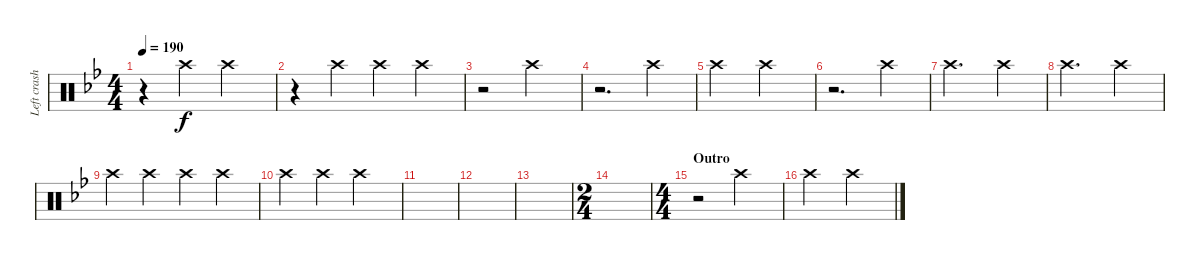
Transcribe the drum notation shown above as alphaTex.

\track ("Left crash" "Left crash") {instrument percussion}
\staff {score}
\articulation defaults
\ts (4 4)
\tempo 190
\clef neutral
\ks bb
r.4{dy f} "Crash high (hit)".4 "Crash high (hit)".2 |
r.4 "Crash high (hit)".4 "Crash high (hit)".4 "Crash high (hit)".4 |
r.2 "Crash high (hit)".2 |
r.2{d} "Crash high (hit)".4 |
"Crash high (hit)".2 "Crash high (hit)".2 |
r.2{d} "Crash high (hit)".4 |
"Crash high (hit)".2{d} "Crash high (hit)".4 |
"Crash high (hit)".2{d} "Crash high (hit)".4 |
"Crash high (hit)".4 "Crash high (hit)".4 "Crash high (hit)".4 "Crash high (hit)".4 |
"Crash high (hit)".4 "Crash high (hit)".4 "Crash high (hit)".2 |
|
|
|
\ts (2 4)
|
\ts (4 4)
\section ("" "Outro")
r.2 "Crash high (hit)".2 |
"Crash high (hit)".2 "Crash high (hit)".2
